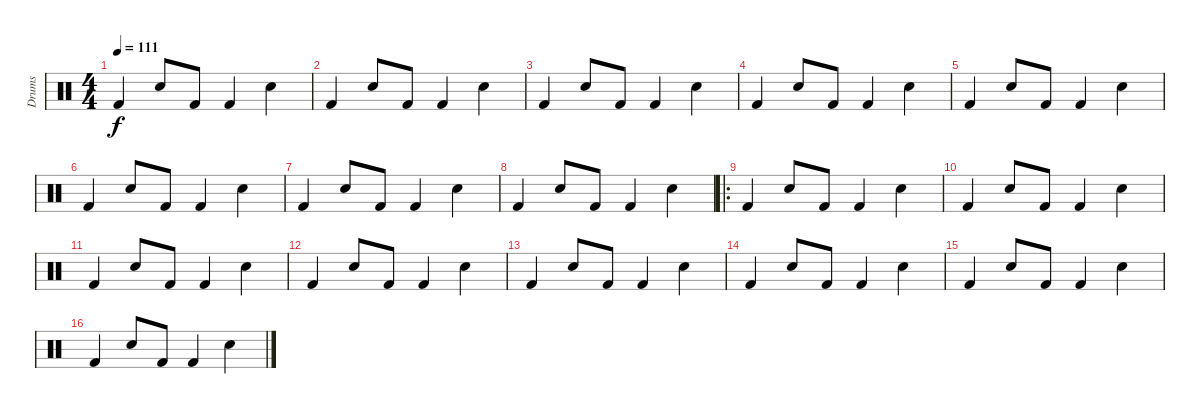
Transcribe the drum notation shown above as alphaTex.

\track ("Drums" "Drums") {instrument percussion}
\staff {score}
\articulation defaults
\ts (4 4)
\tempo 111
\clef neutral
\ks c "Kick (hit) 2".4{dy f} "Snare (hit) 2".8 "Kick (hit) 2".8 "Kick (hit) 2".4 "Snare (hit) 2".4
|
"Kick (hit) 2".4 "Snare (hit) 2".8 "Kick (hit) 2".8 "Kick (hit) 2".4 "Snare (hit) 2".4 |
"Kick (hit) 2".4 "Snare (hit) 2".8 "Kick (hit) 2".8 "Kick (hit) 2".4 "Snare (hit) 2".4 |
"Kick (hit) 2".4 "Snare (hit) 2".8 "Kick (hit) 2".8 "Kick (hit) 2".4 "Snare (hit) 2".4 |
"Kick (hit) 2".4 "Snare (hit) 2".8 "Kick (hit) 2".8 "Kick (hit) 2".4 "Snare (hit) 2".4 |
"Kick (hit) 2".4 "Snare (hit) 2".8 "Kick (hit) 2".8 "Kick (hit) 2".4 "Snare (hit) 2".4 |
"Kick (hit) 2".4 "Snare (hit) 2".8 "Kick (hit) 2".8 "Kick (hit) 2".4 "Snare (hit) 2".4 |
"Kick (hit) 2".4 "Snare (hit) 2".8 "Kick (hit) 2".8 "Kick (hit) 2".4 "Snare (hit) 2".4 |
\ro "Kick (hit) 2".4 "Snare (hit) 2".8 "Kick (hit) 2".8 "Kick (hit) 2".4 "Snare (hit) 2".4
|
"Kick (hit) 2".4 "Snare (hit) 2".8 "Kick (hit) 2".8 "Kick (hit) 2".4 "Snare (hit) 2".4 |
"Kick (hit) 2".4 "Snare (hit) 2".8 "Kick (hit) 2".8 "Kick (hit) 2".4 "Snare (hit) 2".4 |
"Kick (hit) 2".4 "Snare (hit) 2".8 "Kick (hit) 2".8 "Kick (hit) 2".4 "Snare (hit) 2".4 |
"Kick (hit) 2".4 "Snare (hit) 2".8 "Kick (hit) 2".8 "Kick (hit) 2".4 "Snare (hit) 2".4 |
"Kick (hit) 2".4 "Snare (hit) 2".8 "Kick (hit) 2".8 "Kick (hit) 2".4 "Snare (hit) 2".4 |
"Kick (hit) 2".4 "Snare (hit) 2".8 "Kick (hit) 2".8 "Kick (hit) 2".4 "Snare (hit) 2".4 |
"Kick (hit) 2".4 "Snare (hit) 2".8 "Kick (hit) 2".8 "Kick (hit) 2".4 "Snare (hit) 2".4
